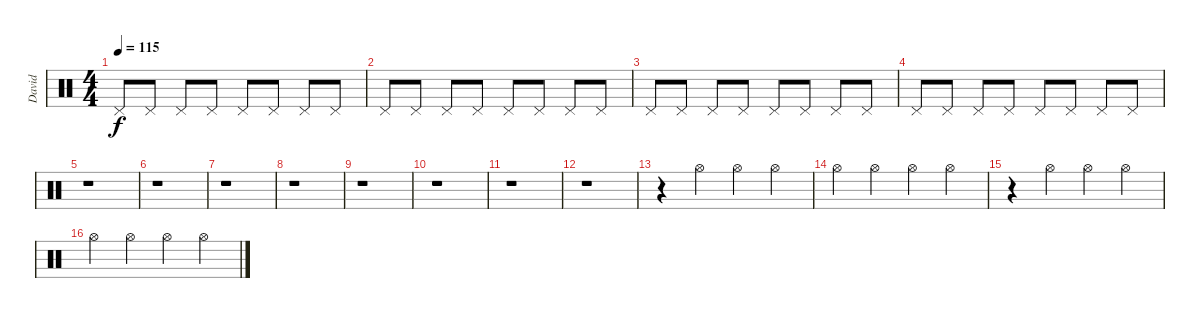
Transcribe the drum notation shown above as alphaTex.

\track ("David" "David") {instrument percussion}
\staff {score}
\articulation defaults
\ts (4 4)
\tempo 115
\clef neutral
\ks c "Pedal Hi-Hat (hit)".8{dy f} "Pedal Hi-Hat (hit)".8 "Pedal Hi-Hat (hit)".8 "Pedal Hi-Hat (hit)".8 "Pedal Hi-Hat (hit)".8 "Pedal Hi-Hat (hit)".8 "Pedal Hi-Hat (hit)".8 "Pedal Hi-Hat (hit)".8
|
"Pedal Hi-Hat (hit)".8 "Pedal Hi-Hat (hit)".8 "Pedal Hi-Hat (hit)".8 "Pedal Hi-Hat (hit)".8 "Pedal Hi-Hat (hit)".8 "Pedal Hi-Hat (hit)".8 "Pedal Hi-Hat (hit)".8 "Pedal Hi-Hat (hit)".8 |
"Pedal Hi-Hat (hit)".8 "Pedal Hi-Hat (hit)".8 "Pedal Hi-Hat (hit)".8 "Pedal Hi-Hat (hit)".8 "Pedal Hi-Hat (hit)".8 "Pedal Hi-Hat (hit)".8 "Pedal Hi-Hat (hit)".8 "Pedal Hi-Hat (hit)".8 |
"Pedal Hi-Hat (hit)".8 "Pedal Hi-Hat (hit)".8 "Pedal Hi-Hat (hit)".8 "Pedal Hi-Hat (hit)".8 "Pedal Hi-Hat (hit)".8 "Pedal Hi-Hat (hit)".8 "Pedal Hi-Hat (hit)".8 "Pedal Hi-Hat (hit)".8 |
r.1 |
r.1 |
r.1 |
r.1 |
r.1 |
r.1 |
r.1 |
r.1 |
r.4 "Hi-Hat (open)".4 "Hi-Hat (open)".4 "Hi-Hat (open)".4 |
"Hi-Hat (open)".4 "Hi-Hat (open)".4 "Hi-Hat (open)".4 "Hi-Hat (open)".4 |
r.4 "Hi-Hat (open)".4 "Hi-Hat (open)".4 "Hi-Hat (open)".4 |
"Hi-Hat (open)".4 "Hi-Hat (open)".4 "Hi-Hat (open)".4 "Hi-Hat (open)".4
